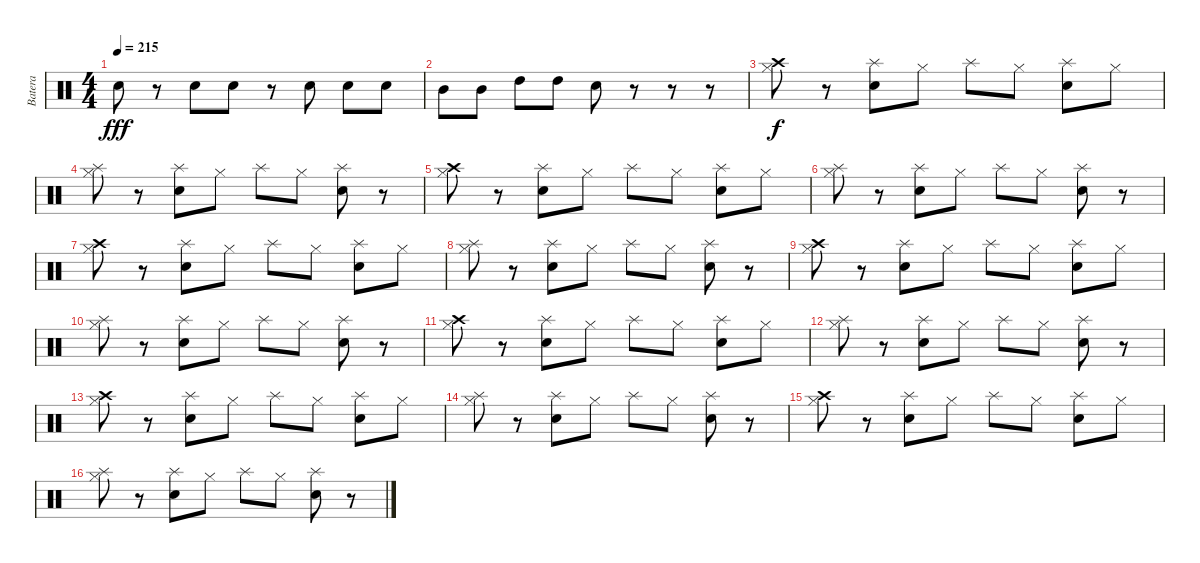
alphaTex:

\track ("Batera" "Batera") {instrument percussion}
\staff {score}
\articulation defaults
\ts (4 4)
\tempo 215
\clef neutral
\ks c "Electric Snare (hit)".8{dy fff}
r.8 "Electric Snare (hit)".8 "Electric Snare (hit)".8 r.8 "Electric Snare (hit)".8 "Electric Snare (hit)".8 "Electric Snare (hit)".8 |
"Mid Tom (hit)".8 "Mid Tom (hit)".8 "High Tom (hit)".8 "High Tom (hit)".8 "Electric Snare (hit)".8 r.8 r.8 r.8 |
("Crash high (hit)" "Hi-Hat (closed)").8{dy f} r.8 ("Splash (hit)" "Electric Snare (hit)").8 "Hi-Hat (closed)".8 "Splash (hit)".8 "Hi-Hat (closed)".8 ("Splash (hit)" "Electric Snare (hit)").8 "Hi-Hat (closed)".8 |
("Splash (hit)" "Hi-Hat (closed)").8 r.8 ("Splash (hit)" "Electric Snare (hit)").8 "Hi-Hat (closed)".8 "Splash (hit)".8 "Hi-Hat (closed)".8 ("Splash (hit)" "Electric Snare (hit)").8 r.8 |
("Crash high (hit)" "Hi-Hat (closed)").8 r.8 ("Splash (hit)" "Electric Snare (hit)").8 "Hi-Hat (closed)".8 "Splash (hit)".8 "Hi-Hat (closed)".8 ("Splash (hit)" "Electric Snare (hit)").8 "Hi-Hat (closed)".8 |
("Splash (hit)" "Hi-Hat (closed)").8 r.8 ("Splash (hit)" "Electric Snare (hit)").8 "Hi-Hat (closed)".8 "Splash (hit)".8 "Hi-Hat (closed)".8 ("Splash (hit)" "Electric Snare (hit)").8 r.8 |
("Crash high (hit)" "Hi-Hat (closed)").8 r.8 ("Splash (hit)" "Electric Snare (hit)").8 "Hi-Hat (closed)".8 "Splash (hit)".8 "Hi-Hat (closed)".8 ("Splash (hit)" "Electric Snare (hit)").8 "Hi-Hat (closed)".8 |
("Splash (hit)" "Hi-Hat (closed)").8 r.8 ("Splash (hit)" "Electric Snare (hit)").8 "Hi-Hat (closed)".8 "Splash (hit)".8 "Hi-Hat (closed)".8 ("Splash (hit)" "Electric Snare (hit)").8 r.8 |
("Crash high (hit)" "Hi-Hat (closed)").8 r.8 ("Splash (hit)" "Electric Snare (hit)").8 "Hi-Hat (closed)".8 "Splash (hit)".8 "Hi-Hat (closed)".8 ("Splash (hit)" "Electric Snare (hit)").8 "Hi-Hat (closed)".8 |
("Splash (hit)" "Hi-Hat (closed)").8 r.8 ("Splash (hit)" "Electric Snare (hit)").8 "Hi-Hat (closed)".8 "Splash (hit)".8 "Hi-Hat (closed)".8 ("Splash (hit)" "Electric Snare (hit)").8 r.8 |
("Crash high (hit)" "Hi-Hat (closed)").8 r.8 ("Splash (hit)" "Electric Snare (hit)").8 "Hi-Hat (closed)".8 "Splash (hit)".8 "Hi-Hat (closed)".8 ("Splash (hit)" "Electric Snare (hit)").8 "Hi-Hat (closed)".8 |
("Splash (hit)" "Hi-Hat (closed)").8 r.8 ("Splash (hit)" "Electric Snare (hit)").8 "Hi-Hat (closed)".8 "Splash (hit)".8 "Hi-Hat (closed)".8 ("Splash (hit)" "Electric Snare (hit)").8 r.8 |
("Crash high (hit)" "Hi-Hat (closed)").8 r.8 ("Splash (hit)" "Electric Snare (hit)").8 "Hi-Hat (closed)".8 "Splash (hit)".8 "Hi-Hat (closed)".8 ("Splash (hit)" "Electric Snare (hit)").8 "Hi-Hat (closed)".8 |
("Splash (hit)" "Hi-Hat (closed)").8 r.8 ("Splash (hit)" "Electric Snare (hit)").8 "Hi-Hat (closed)".8 "Splash (hit)".8 "Hi-Hat (closed)".8 ("Splash (hit)" "Electric Snare (hit)").8 r.8 |
("Crash high (hit)" "Hi-Hat (closed)").8 r.8 ("Splash (hit)" "Electric Snare (hit)").8 "Hi-Hat (closed)".8 "Splash (hit)".8 "Hi-Hat (closed)".8 ("Splash (hit)" "Electric Snare (hit)").8 "Hi-Hat (closed)".8 |
("Splash (hit)" "Hi-Hat (closed)").8 r.8 ("Splash (hit)" "Electric Snare (hit)").8 "Hi-Hat (closed)".8 "Splash (hit)".8 "Hi-Hat (closed)".8 ("Splash (hit)" "Electric Snare (hit)").8 r.8
